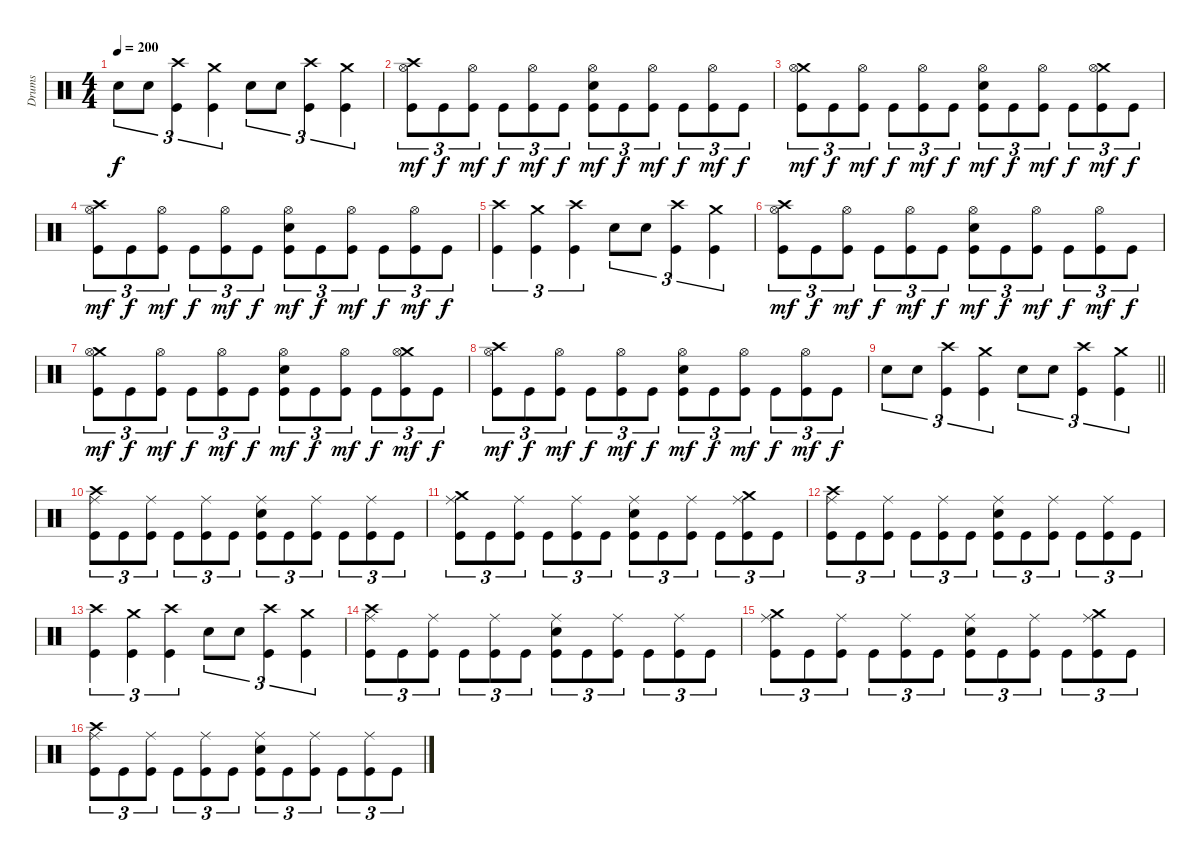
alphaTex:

\track ("Drums" "Drums") {instrument percussion}
\staff {score}
\articulation defaults
\ts (4 4)
\tempo 200
\clef neutral
\ks c "Electric Snare (hit)".8{tu (3 2) dy f} "Electric Snare (hit)".8{tu (3 2)}
("Crash high (hit)" "Kick (hit)").4{tu (3 2)} ("Crash medium (hit)" "Kick (hit)").4{tu (3 2)} "Electric Snare (hit)".8{tu (3 2)} "Electric Snare (hit)".8{tu (3 2)} ("Crash high (hit)" "Kick (hit)").4{tu (3 2)} ("Crash medium (hit)" "Kick (hit)").4{tu (3 2)} |
("Crash high (hit)" "Hi-Hat (open)" "Kick (hit)").8{tu (3 2) dy mf} "Kick (hit)".8{tu (3 2) dy f} ("Hi-Hat (open)" "Kick (hit)").8{tu (3 2) dy mf} "Kick (hit)".8{tu (3 2) dy f} ("Hi-Hat (open)" "Kick (hit)").8{tu (3 2) dy mf} "Kick (hit)".8{tu (3 2) dy f} ("Hi-Hat (open)" "Electric Snare (hit)" "Kick (hit)").8{tu (3 2) dy mf} "Kick (hit)".8{tu (3 2) dy f} ("Hi-Hat (open)" "Kick (hit)").8{tu (3 2) dy mf} "Kick (hit)".8{tu (3 2) dy f} ("Hi-Hat (open)" "Kick (hit)").8{tu (3 2) dy mf} "Kick (hit)".8{tu (3 2) dy f} |
("Crash medium (hit)" "Hi-Hat (open)" "Kick (hit)").8{tu (3 2) dy mf} "Kick (hit)".8{tu (3 2) dy f} ("Hi-Hat (open)" "Kick (hit)").8{tu (3 2) dy mf} "Kick (hit)".8{tu (3 2) dy f} ("Hi-Hat (open)" "Kick (hit)").8{tu (3 2) dy mf} "Kick (hit)".8{tu (3 2) dy f} ("Hi-Hat (open)" "Electric Snare (hit)" "Kick (hit)").8{tu (3 2) dy mf} "Kick (hit)".8{tu (3 2) dy f} ("Hi-Hat (open)" "Kick (hit)").8{tu (3 2) dy mf} "Kick (hit)".8{tu (3 2) dy f} ("Crash medium (hit)" "Hi-Hat (open)" "Kick (hit)").8{tu (3 2) dy mf} "Kick (hit)".8{tu (3 2) dy f} |
("Crash high (hit)" "Hi-Hat (open)" "Kick (hit)").8{tu (3 2) dy mf} "Kick (hit)".8{tu (3 2) dy f} ("Hi-Hat (open)" "Kick (hit)").8{tu (3 2) dy mf} "Kick (hit)".8{tu (3 2) dy f} ("Hi-Hat (open)" "Kick (hit)").8{tu (3 2) dy mf} "Kick (hit)".8{tu (3 2) dy f} ("Hi-Hat (open)" "Electric Snare (hit)" "Kick (hit)").8{tu (3 2) dy mf} "Kick (hit)".8{tu (3 2) dy f} ("Hi-Hat (open)" "Kick (hit)").8{tu (3 2) dy mf} "Kick (hit)".8{tu (3 2) dy f} ("Hi-Hat (open)" "Kick (hit)").8{tu (3 2) dy mf} "Kick (hit)".8{tu (3 2) dy f} |
("Crash high (hit)" "Kick (hit)").4{tu (3 2)} ("Crash medium (hit)" "Kick (hit)").4{tu (3 2)} ("Crash high (hit)" "Kick (hit)").4{tu (3 2)} "Electric Snare (hit)".8{tu (3 2)} "Electric Snare (hit)".8{tu (3 2)} ("Crash high (hit)" "Kick (hit)").4{tu (3 2)} ("Crash medium (hit)" "Kick (hit)").4{tu (3 2)} |
("Crash high (hit)" "Hi-Hat (open)" "Kick (hit)").8{tu (3 2) dy mf} "Kick (hit)".8{tu (3 2) dy f} ("Hi-Hat (open)" "Kick (hit)").8{tu (3 2) dy mf} "Kick (hit)".8{tu (3 2) dy f} ("Hi-Hat (open)" "Kick (hit)").8{tu (3 2) dy mf} "Kick (hit)".8{tu (3 2) dy f} ("Hi-Hat (open)" "Electric Snare (hit)" "Kick (hit)").8{tu (3 2) dy mf} "Kick (hit)".8{tu (3 2) dy f} ("Hi-Hat (open)" "Kick (hit)").8{tu (3 2) dy mf} "Kick (hit)".8{tu (3 2) dy f} ("Hi-Hat (open)" "Kick (hit)").8{tu (3 2) dy mf} "Kick (hit)".8{tu (3 2) dy f} |
("Crash medium (hit)" "Hi-Hat (open)" "Kick (hit)").8{tu (3 2) dy mf} "Kick (hit)".8{tu (3 2) dy f} ("Hi-Hat (open)" "Kick (hit)").8{tu (3 2) dy mf} "Kick (hit)".8{tu (3 2) dy f} ("Hi-Hat (open)" "Kick (hit)").8{tu (3 2) dy mf} "Kick (hit)".8{tu (3 2) dy f} ("Hi-Hat (open)" "Electric Snare (hit)" "Kick (hit)").8{tu (3 2) dy mf} "Kick (hit)".8{tu (3 2) dy f} ("Hi-Hat (open)" "Kick (hit)").8{tu (3 2) dy mf} "Kick (hit)".8{tu (3 2) dy f} ("Crash medium (hit)" "Hi-Hat (open)" "Kick (hit)").8{tu (3 2) dy mf} "Kick (hit)".8{tu (3 2) dy f} |
("Crash high (hit)" "Hi-Hat (open)" "Kick (hit)").8{tu (3 2) dy mf} "Kick (hit)".8{tu (3 2) dy f} ("Hi-Hat (open)" "Kick (hit)").8{tu (3 2) dy mf} "Kick (hit)".8{tu (3 2) dy f} ("Hi-Hat (open)" "Kick (hit)").8{tu (3 2) dy mf} "Kick (hit)".8{tu (3 2) dy f} ("Hi-Hat (open)" "Electric Snare (hit)" "Kick (hit)").8{tu (3 2) dy mf} "Kick (hit)".8{tu (3 2) dy f} ("Hi-Hat (open)" "Kick (hit)").8{tu (3 2) dy mf} "Kick (hit)".8{tu (3 2) dy f} ("Hi-Hat (open)" "Kick (hit)").8{tu (3 2) dy mf} "Kick (hit)".8{tu (3 2) dy f} |
\barLineRight lightlight "Electric Snare (hit)".8{tu (3 2)} "Electric Snare (hit)".8{tu (3 2)}
("Crash high (hit)" "Kick (hit)").4{tu (3 2)} ("Crash medium (hit)" "Kick (hit)").4{tu (3 2)} "Electric Snare (hit)".8{tu (3 2)} "Electric Snare (hit)".8{tu (3 2)} ("Crash high (hit)" "Kick (hit)").4{tu (3 2)} ("Crash medium (hit)" "Kick (hit)").4{tu (3 2)} |
\section ("" "")
("Crash high (hit)" "Ride (middle)" "Kick (hit)").8{tu (3 2)} "Kick (hit)".8{tu (3 2)} ("Ride (middle)" "Kick (hit)").8{tu (3 2)} "Kick (hit)".8{tu (3 2)} ("Ride (middle)" "Kick (hit)").8{tu (3 2)} "Kick (hit)".8{tu (3 2)} ("Ride (middle)" "Electric Snare (hit)" "Kick (hit)").8{tu (3 2)} "Kick (hit)".8{tu (3 2)} ("Ride (middle)" "Kick (hit)").8{tu (3 2)} "Kick (hit)".8{tu (3 2)} ("Ride (middle)" "Kick (hit)").8{tu (3 2)} "Kick (hit)".8{tu (3 2)} |
("Crash medium (hit)" "Ride (middle)" "Kick (hit)").8{tu (3 2)} "Kick (hit)".8{tu (3 2)} ("Ride (middle)" "Kick (hit)").8{tu (3 2)} "Kick (hit)".8{tu (3 2)} ("Ride (middle)" "Kick (hit)").8{tu (3 2)} "Kick (hit)".8{tu (3 2)} ("Ride (middle)" "Electric Snare (hit)" "Kick (hit)").8{tu (3 2)} "Kick (hit)".8{tu (3 2)} ("Ride (middle)" "Kick (hit)").8{tu (3 2)} "Kick (hit)".8{tu (3 2)} ("Crash medium (hit)" "Ride (middle)" "Kick (hit)").8{tu (3 2)} "Kick (hit)".8{tu (3 2)} |
("Crash high (hit)" "Ride (middle)" "Kick (hit)").8{tu (3 2)} "Kick (hit)".8{tu (3 2)} ("Ride (middle)" "Kick (hit)").8{tu (3 2)} "Kick (hit)".8{tu (3 2)} ("Ride (middle)" "Kick (hit)").8{tu (3 2)} "Kick (hit)".8{tu (3 2)} ("Ride (middle)" "Electric Snare (hit)" "Kick (hit)").8{tu (3 2)} "Kick (hit)".8{tu (3 2)} ("Ride (middle)" "Kick (hit)").8{tu (3 2)} "Kick (hit)".8{tu (3 2)} ("Ride (middle)" "Kick (hit)").8{tu (3 2)} "Kick (hit)".8{tu (3 2)} |
("Crash high (hit)" "Kick (hit)").4{tu (3 2)} ("Crash medium (hit)" "Kick (hit)").4{tu (3 2)} ("Crash high (hit)" "Kick (hit)").4{tu (3 2)} "Electric Snare (hit)".8{tu (3 2)} "Electric Snare (hit)".8{tu (3 2)} ("Crash high (hit)" "Kick (hit)").4{tu (3 2)} ("Crash medium (hit)" "Kick (hit)").4{tu (3 2)} |
("Crash high (hit)" "Ride (middle)" "Kick (hit)").8{tu (3 2)} "Kick (hit)".8{tu (3 2)} ("Ride (middle)" "Kick (hit)").8{tu (3 2)} "Kick (hit)".8{tu (3 2)} ("Ride (middle)" "Kick (hit)").8{tu (3 2)} "Kick (hit)".8{tu (3 2)} ("Ride (middle)" "Electric Snare (hit)" "Kick (hit)").8{tu (3 2)} "Kick (hit)".8{tu (3 2)} ("Ride (middle)" "Kick (hit)").8{tu (3 2)} "Kick (hit)".8{tu (3 2)} ("Ride (middle)" "Kick (hit)").8{tu (3 2)} "Kick (hit)".8{tu (3 2)} |
("Crash medium (hit)" "Ride (middle)" "Kick (hit)").8{tu (3 2)} "Kick (hit)".8{tu (3 2)} ("Ride (middle)" "Kick (hit)").8{tu (3 2)} "Kick (hit)".8{tu (3 2)} ("Ride (middle)" "Kick (hit)").8{tu (3 2)} "Kick (hit)".8{tu (3 2)} ("Ride (middle)" "Electric Snare (hit)" "Kick (hit)").8{tu (3 2)} "Kick (hit)".8{tu (3 2)} ("Ride (middle)" "Kick (hit)").8{tu (3 2)} "Kick (hit)".8{tu (3 2)} ("Crash medium (hit)" "Ride (middle)" "Kick (hit)").8{tu (3 2)} "Kick (hit)".8{tu (3 2)} |
("Crash high (hit)" "Ride (middle)" "Kick (hit)").8{tu (3 2)} "Kick (hit)".8{tu (3 2)} ("Ride (middle)" "Kick (hit)").8{tu (3 2)} "Kick (hit)".8{tu (3 2)} ("Ride (middle)" "Kick (hit)").8{tu (3 2)} "Kick (hit)".8{tu (3 2)} ("Ride (middle)" "Electric Snare (hit)" "Kick (hit)").8{tu (3 2)} "Kick (hit)".8{tu (3 2)} ("Ride (middle)" "Kick (hit)").8{tu (3 2)} "Kick (hit)".8{tu (3 2)} ("Ride (middle)" "Kick (hit)").8{tu (3 2)} "Kick (hit)".8{tu (3 2)}
